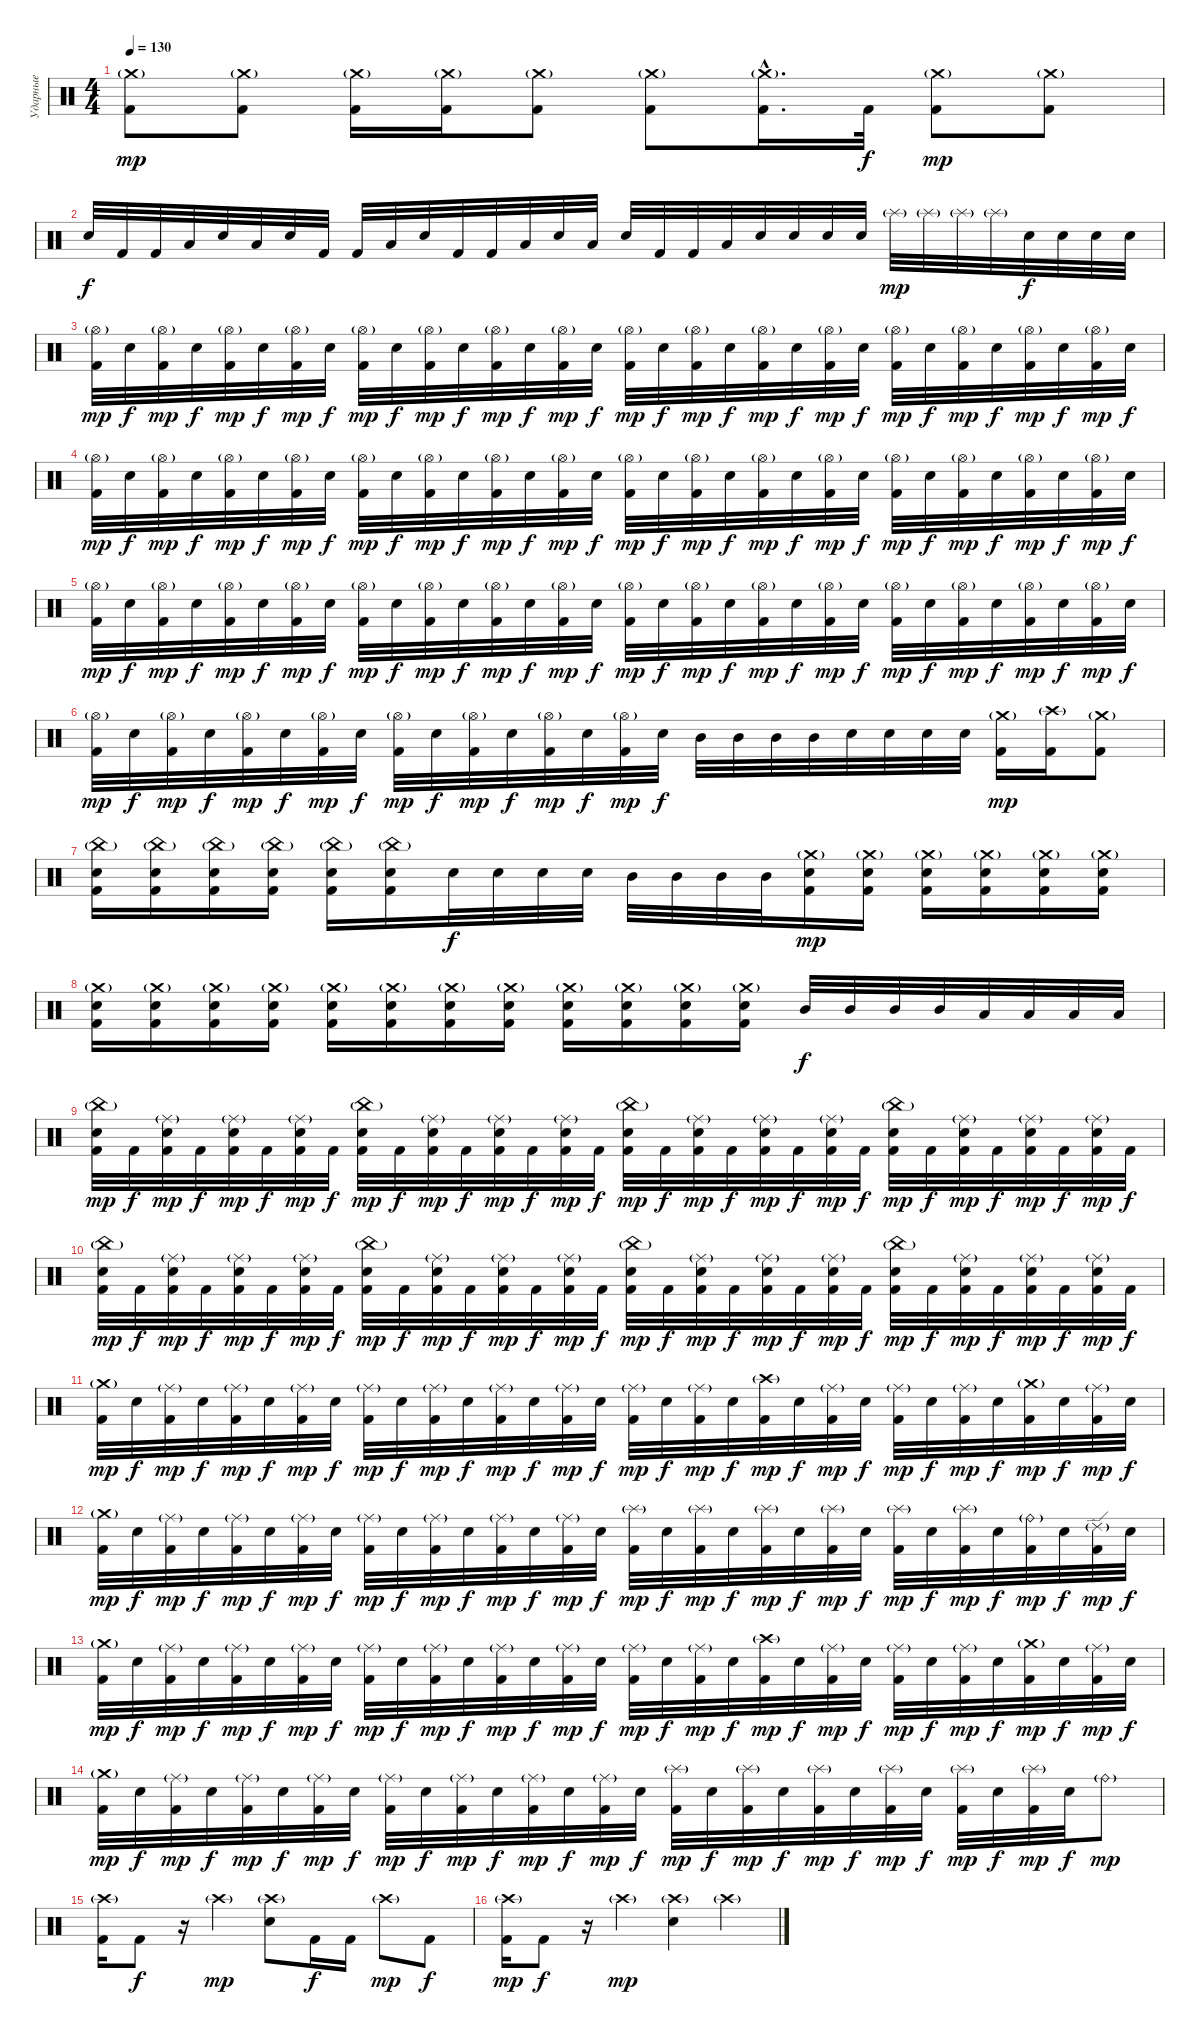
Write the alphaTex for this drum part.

\track ("Ударные" "Ударные") {instrument percussion}
\staff {score}
\articulation defaults
\ts (4 4)
\tempo 130
\clef neutral
\ks c
("Crash medium (hit)"{g} "Kick (hit) 2").8{dy mp} ("Crash medium (hit)"{g} "Kick (hit) 2").8 ("Crash medium (hit)"{g} "Kick (hit) 2").16 ("Crash medium (hit)"{g} "Kick (hit) 2").16 ("Crash medium (hit)"{g} "Kick (hit) 2").8 ("Crash medium (hit)"{g} "Kick (hit) 2").8 ("Crash medium (hit)"{g hac} "Kick (hit) 2"{hac}).16{d} "Kick (hit) 2".32{dy f} ("Crash medium (hit)"{g} "Kick (hit) 2").8{dy mp} ("Crash medium (hit)"{g} "Kick (hit) 2").8 |
"Electric Snare (hit)".32{dy f} "Kick (hit) 2".32 "Kick (hit) 2".32 "Low Tom (hit)".32 "Electric Snare (hit)".32 "Low Tom (hit)".32 "Electric Snare (hit)".32 "Kick (hit) 2".32 "Kick (hit) 2".32 "Low Tom (hit)".32 "Electric Snare (hit)".32 "Kick (hit) 2".32 "Kick (hit) 2".32 "Low Tom (hit)".32 "Electric Snare (hit)".32 "Low Tom (hit)".32 "Electric Snare (hit)".32 "Kick (hit) 2".32 "Kick (hit) 2".32 "Low Tom (hit)".32 "Electric Snare (hit)".32 "Electric Snare (hit)".32 "Electric Snare (hit)".32 "Electric Snare (hit)".32 "Splash (hit)"{g}.32{dy mp} "Splash (hit)"{g}.32 "Splash (hit)"{g}.32 "Splash (hit)"{g}.32 "Electric Snare (hit)".32{dy f} "Electric Snare (hit)".32 "Electric Snare (hit)".32 "Electric Snare (hit)".32 |
("Hi-Hat (open)"{g} "Kick (hit) 2").32{dy mp} "Electric Snare (hit)".32{dy f} ("Hi-Hat (open)"{g} "Kick (hit) 2").32{dy mp} "Electric Snare (hit)".32{dy f} ("Hi-Hat (open)"{g} "Kick (hit) 2").32{dy mp} "Electric Snare (hit)".32{dy f} ("Hi-Hat (open)"{g} "Kick (hit) 2").32{dy mp} "Electric Snare (hit)".32{dy f} ("Hi-Hat (open)"{g} "Kick (hit) 2").32{dy mp} "Electric Snare (hit)".32{dy f} ("Hi-Hat (open)"{g} "Kick (hit) 2").32{dy mp} "Electric Snare (hit)".32{dy f} ("Hi-Hat (open)"{g} "Kick (hit) 2").32{dy mp} "Electric Snare (hit)".32{dy f} ("Hi-Hat (open)"{g} "Kick (hit) 2").32{dy mp} "Electric Snare (hit)".32{dy f} ("Hi-Hat (open)"{g} "Kick (hit) 2").32{dy mp} "Electric Snare (hit)".32{dy f} ("Hi-Hat (open)"{g} "Kick (hit) 2").32{dy mp} "Electric Snare (hit)".32{dy f} ("Hi-Hat (open)"{g} "Kick (hit) 2").32{dy mp} "Electric Snare (hit)".32{dy f} ("Hi-Hat (open)"{g} "Kick (hit) 2").32{dy mp} "Electric Snare (hit)".32{dy f} ("Hi-Hat (open)"{g} "Kick (hit) 2").32{dy mp} "Electric Snare (hit)".32{dy f} ("Hi-Hat (open)"{g} "Kick (hit) 2").32{dy mp} "Electric Snare (hit)".32{dy f} ("Hi-Hat (open)"{g} "Kick (hit) 2").32{dy mp} "Electric Snare (hit)".32{dy f} ("Hi-Hat (open)"{g} "Kick (hit) 2").32{dy mp} "Electric Snare (hit)".32{dy f} |
("Hi-Hat (open)"{g} "Kick (hit) 2").32{dy mp} "Electric Snare (hit)".32{dy f} ("Hi-Hat (open)"{g} "Kick (hit) 2").32{dy mp} "Electric Snare (hit)".32{dy f} ("Hi-Hat (open)"{g} "Kick (hit) 2").32{dy mp} "Electric Snare (hit)".32{dy f} ("Hi-Hat (open)"{g} "Kick (hit) 2").32{dy mp} "Electric Snare (hit)".32{dy f} ("Hi-Hat (open)"{g} "Kick (hit) 2").32{dy mp} "Electric Snare (hit)".32{dy f} ("Hi-Hat (open)"{g} "Kick (hit) 2").32{dy mp} "Electric Snare (hit)".32{dy f} ("Hi-Hat (open)"{g} "Kick (hit) 2").32{dy mp} "Electric Snare (hit)".32{dy f} ("Hi-Hat (open)"{g} "Kick (hit) 2").32{dy mp} "Electric Snare (hit)".32{dy f} ("Hi-Hat (open)"{g} "Kick (hit) 2").32{dy mp} "Electric Snare (hit)".32{dy f} ("Hi-Hat (open)"{g} "Kick (hit) 2").32{dy mp} "Electric Snare (hit)".32{dy f} ("Hi-Hat (open)"{g} "Kick (hit) 2").32{dy mp} "Electric Snare (hit)".32{dy f} ("Hi-Hat (open)"{g} "Kick (hit) 2").32{dy mp} "Electric Snare (hit)".32{dy f} ("Hi-Hat (open)"{g} "Kick (hit) 2").32{dy mp} "Electric Snare (hit)".32{dy f} ("Hi-Hat (open)"{g} "Kick (hit) 2").32{dy mp} "Electric Snare (hit)".32{dy f} ("Hi-Hat (open)"{g} "Kick (hit) 2").32{dy mp} "Electric Snare (hit)".32{dy f} ("Hi-Hat (open)"{g} "Kick (hit) 2").32{dy mp} "Electric Snare (hit)".32{dy f} |
("Hi-Hat (open)"{g} "Kick (hit) 2").32{dy mp} "Electric Snare (hit)".32{dy f} ("Hi-Hat (open)"{g} "Kick (hit) 2").32{dy mp} "Electric Snare (hit)".32{dy f} ("Hi-Hat (open)"{g} "Kick (hit) 2").32{dy mp} "Electric Snare (hit)".32{dy f} ("Hi-Hat (open)"{g} "Kick (hit) 2").32{dy mp} "Electric Snare (hit)".32{dy f} ("Hi-Hat (open)"{g} "Kick (hit) 2").32{dy mp} "Electric Snare (hit)".32{dy f} ("Hi-Hat (open)"{g} "Kick (hit) 2").32{dy mp} "Electric Snare (hit)".32{dy f} ("Hi-Hat (open)"{g} "Kick (hit) 2").32{dy mp} "Electric Snare (hit)".32{dy f} ("Hi-Hat (open)"{g} "Kick (hit) 2").32{dy mp} "Electric Snare (hit)".32{dy f} ("Hi-Hat (open)"{g} "Kick (hit) 2").32{dy mp} "Electric Snare (hit)".32{dy f} ("Hi-Hat (open)"{g} "Kick (hit) 2").32{dy mp} "Electric Snare (hit)".32{dy f} ("Hi-Hat (open)"{g} "Kick (hit) 2").32{dy mp} "Electric Snare (hit)".32{dy f} ("Hi-Hat (open)"{g} "Kick (hit) 2").32{dy mp} "Electric Snare (hit)".32{dy f} ("Hi-Hat (open)"{g} "Kick (hit) 2").32{dy mp} "Electric Snare (hit)".32{dy f} ("Hi-Hat (open)"{g} "Kick (hit) 2").32{dy mp} "Electric Snare (hit)".32{dy f} ("Hi-Hat (open)"{g} "Kick (hit) 2").32{dy mp} "Electric Snare (hit)".32{dy f} ("Hi-Hat (open)"{g} "Kick (hit) 2").32{dy mp} "Electric Snare (hit)".32{dy f} |
("Hi-Hat (open)"{g} "Kick (hit) 2").32{dy mp} "Electric Snare (hit)".32{dy f} ("Hi-Hat (open)"{g} "Kick (hit) 2").32{dy mp} "Electric Snare (hit)".32{dy f} ("Hi-Hat (open)"{g} "Kick (hit) 2").32{dy mp} "Electric Snare (hit)".32{dy f} ("Hi-Hat (open)"{g} "Kick (hit) 2").32{dy mp} "Electric Snare (hit)".32{dy f} ("Hi-Hat (open)"{g} "Kick (hit) 2").32{dy mp} "Electric Snare (hit)".32{dy f} ("Hi-Hat (open)"{g} "Kick (hit) 2").32{dy mp} "Electric Snare (hit)".32{dy f} ("Hi-Hat (open)"{g} "Kick (hit) 2").32{dy mp} "Electric Snare (hit)".32{dy f} ("Hi-Hat (open)"{g} "Kick (hit) 2").32{dy mp} "Electric Snare (hit)".32{dy f} "Mid Tom (hit)".32 "Mid Tom (hit)".32 "Mid Tom (hit)".32 "Mid Tom (hit)".32 "Electric Snare (hit)".32 "Electric Snare (hit)".32 "Electric Snare (hit)".32 "Electric Snare (hit)".32 ("Crash medium (hit)"{g} "Kick (hit) 2").16{dy mp} ("Crash high (hit)"{g} "Kick (hit) 2").16 ("Crash medium (hit)"{g} "Kick (hit) 2").8 |
("China (hit)"{g} "Electric Snare (hit)" "Kick (hit) 2").16 ("China (hit)"{g} "Electric Snare (hit)" "Kick (hit) 2").16 ("China (hit)"{g} "Electric Snare (hit)" "Kick (hit) 2").16 ("China (hit)"{g} "Electric Snare (hit)" "Kick (hit) 2").16 ("China (hit)"{g} "Electric Snare (hit)" "Kick (hit) 2").16 ("China (hit)"{g} "Electric Snare (hit)" "Kick (hit) 2").16 "Electric Snare (hit)".32{dy f} "Electric Snare (hit)".32 "Electric Snare (hit)".32 "Electric Snare (hit)".32 "Mid Tom (hit)".32 "Mid Tom (hit)".32 "Mid Tom (hit)".32 "Mid Tom (hit)".32 ("Crash medium (hit)"{g} "Electric Snare (hit)" "Kick (hit) 2").16{dy mp} ("Crash medium (hit)"{g} "Electric Snare (hit)" "Kick (hit) 2").16 ("Crash medium (hit)"{g} "Electric Snare (hit)" "Kick (hit) 2").16 ("Crash medium (hit)"{g} "Electric Snare (hit)" "Kick (hit) 2").16 ("Crash medium (hit)"{g} "Electric Snare (hit)" "Kick (hit) 2").16 ("Crash medium (hit)"{g} "Electric Snare (hit)" "Kick (hit) 2").16 |
("Crash medium (hit)"{g} "Electric Snare (hit)" "Kick (hit) 2").16 ("Crash medium (hit)"{g} "Electric Snare (hit)" "Kick (hit) 2").16 ("Crash medium (hit)"{g} "Electric Snare (hit)" "Kick (hit) 2").16 ("Crash medium (hit)"{g} "Electric Snare (hit)" "Kick (hit) 2").16 ("Crash medium (hit)"{g} "Electric Snare (hit)" "Kick (hit) 2").16 ("Crash medium (hit)"{g} "Electric Snare (hit)" "Kick (hit) 2").16 ("Crash medium (hit)"{g} "Electric Snare (hit)" "Kick (hit) 2").16 ("Crash medium (hit)"{g} "Electric Snare (hit)" "Kick (hit) 2").16 ("Crash medium (hit)"{g} "Electric Snare (hit)" "Kick (hit) 2").16 ("Crash medium (hit)"{g} "Electric Snare (hit)" "Kick (hit) 2").16 ("Crash medium (hit)"{g} "Electric Snare (hit)" "Kick (hit) 2").16 ("Crash medium (hit)"{g} "Electric Snare (hit)" "Kick (hit) 2").16 "Mid Tom (hit)".32{dy f} "Mid Tom (hit)".32 "Mid Tom (hit)".32 "Mid Tom (hit)".32 "Low Tom (hit)".32 "Low Tom (hit)".32 "Low Tom (hit)".32 "Low Tom (hit)".32 |
("China (hit)"{g} "Electric Snare (hit)" "Kick (hit) 2").32{dy mp} "Kick (hit) 2".32{dy f} ("Ride (middle)"{g} "Electric Snare (hit)" "Kick (hit) 2").32{dy mp} "Kick (hit) 2".32{dy f} ("Ride (middle)"{g} "Electric Snare (hit)" "Kick (hit) 2").32{dy mp} "Kick (hit) 2".32{dy f} ("Ride (middle)"{g} "Electric Snare (hit)" "Kick (hit) 2").32{dy mp} "Kick (hit) 2".32{dy f} ("China (hit)"{g} "Electric Snare (hit)" "Kick (hit) 2").32{dy mp} "Kick (hit) 2".32{dy f} ("Ride (middle)"{g} "Electric Snare (hit)" "Kick (hit) 2").32{dy mp} "Kick (hit) 2".32{dy f} ("Ride (middle)"{g} "Electric Snare (hit)" "Kick (hit) 2").32{dy mp} "Kick (hit) 2".32{dy f} ("Ride (middle)"{g} "Electric Snare (hit)" "Kick (hit) 2").32{dy mp} "Kick (hit) 2".32{dy f} ("China (hit)"{g} "Electric Snare (hit)" "Kick (hit) 2").32{dy mp} "Kick (hit) 2".32{dy f} ("Ride (middle)"{g} "Electric Snare (hit)" "Kick (hit) 2").32{dy mp} "Kick (hit) 2".32{dy f} ("Ride (middle)"{g} "Electric Snare (hit)" "Kick (hit) 2").32{dy mp} "Kick (hit) 2".32{dy f} ("Ride (middle)"{g} "Electric Snare (hit)" "Kick (hit) 2").32{dy mp} "Kick (hit) 2".32{dy f} ("China (hit)"{g} "Electric Snare (hit)" "Kick (hit) 2").32{dy mp} "Kick (hit) 2".32{dy f} ("Ride (middle)"{g} "Electric Snare (hit)" "Kick (hit) 2").32{dy mp} "Kick (hit) 2".32{dy f} ("Ride (middle)"{g} "Electric Snare (hit)" "Kick (hit) 2").32{dy mp} "Kick (hit) 2".32{dy f} ("Ride (middle)"{g} "Electric Snare (hit)" "Kick (hit) 2").32{dy mp} "Kick (hit) 2".32{dy f} |
("China (hit)"{g} "Electric Snare (hit)" "Kick (hit) 2").32{dy mp} "Kick (hit) 2".32{dy f} ("Ride (middle)"{g} "Electric Snare (hit)" "Kick (hit) 2").32{dy mp} "Kick (hit) 2".32{dy f} ("Ride (middle)"{g} "Electric Snare (hit)" "Kick (hit) 2").32{dy mp} "Kick (hit) 2".32{dy f} ("Ride (middle)"{g} "Electric Snare (hit)" "Kick (hit) 2").32{dy mp} "Kick (hit) 2".32{dy f} ("China (hit)"{g} "Electric Snare (hit)" "Kick (hit) 2").32{dy mp} "Kick (hit) 2".32{dy f} ("Ride (middle)"{g} "Electric Snare (hit)" "Kick (hit) 2").32{dy mp} "Kick (hit) 2".32{dy f} ("Ride (middle)"{g} "Electric Snare (hit)" "Kick (hit) 2").32{dy mp} "Kick (hit) 2".32{dy f} ("Ride (middle)"{g} "Electric Snare (hit)" "Kick (hit) 2").32{dy mp} "Kick (hit) 2".32{dy f} ("China (hit)"{g} "Electric Snare (hit)" "Kick (hit) 2").32{dy mp} "Kick (hit) 2".32{dy f} ("Ride (middle)"{g} "Electric Snare (hit)" "Kick (hit) 2").32{dy mp} "Kick (hit) 2".32{dy f} ("Ride (middle)"{g} "Electric Snare (hit)" "Kick (hit) 2").32{dy mp} "Kick (hit) 2".32{dy f} ("Ride (middle)"{g} "Electric Snare (hit)" "Kick (hit) 2").32{dy mp} "Kick (hit) 2".32{dy f} ("China (hit)"{g} "Electric Snare (hit)" "Kick (hit) 2").32{dy mp} "Kick (hit) 2".32{dy f} ("Ride (middle)"{g} "Electric Snare (hit)" "Kick (hit) 2").32{dy mp} "Kick (hit) 2".32{dy f} ("Ride (middle)"{g} "Electric Snare (hit)" "Kick (hit) 2").32{dy mp} "Kick (hit) 2".32{dy f} ("Ride (middle)"{g} "Electric Snare (hit)" "Kick (hit) 2").32{dy mp} "Kick (hit) 2".32{dy f} |
("Crash medium (hit)"{g} "Kick (hit) 2").32{dy mp} "Electric Snare (hit)".32{dy f} ("Ride (middle)"{g} "Kick (hit) 2").32{dy mp} "Electric Snare (hit)".32{dy f} ("Ride (middle)"{g} "Kick (hit) 2").32{dy mp} "Electric Snare (hit)".32{dy f} ("Ride (middle)"{g} "Kick (hit) 2").32{dy mp} "Electric Snare (hit)".32{dy f} ("Ride (middle)"{g} "Kick (hit) 2").32{dy mp} "Electric Snare (hit)".32{dy f} ("Ride (middle)"{g} "Kick (hit) 2").32{dy mp} "Electric Snare (hit)".32{dy f} ("Ride (middle)"{g} "Kick (hit) 2").32{dy mp} "Electric Snare (hit)".32{dy f} ("Ride (middle)"{g} "Kick (hit) 2").32{dy mp} "Electric Snare (hit)".32{dy f} ("Ride (middle)"{g} "Kick (hit) 2").32{dy mp} "Electric Snare (hit)".32{dy f} ("Ride (middle)"{g} "Kick (hit) 2").32{dy mp} "Electric Snare (hit)".32{dy f} ("Crash high (hit)"{g} "Kick (hit) 2").32{dy mp} "Electric Snare (hit)".32{dy f} ("Ride (middle)"{g} "Kick (hit) 2").32{dy mp} "Electric Snare (hit)".32{dy f} ("Ride (middle)"{g} "Kick (hit) 2").32{dy mp} "Electric Snare (hit)".32{dy f} ("Ride (middle)"{g} "Kick (hit) 2").32{dy mp} "Electric Snare (hit)".32{dy f} ("Crash medium (hit)"{g} "Kick (hit) 2").32{dy mp} "Electric Snare (hit)".32{dy f} ("Ride (middle)"{g} "Kick (hit) 2").32{dy mp} "Electric Snare (hit)".32{dy f} |
("Crash medium (hit)"{g} "Kick (hit) 2").32{dy mp} "Electric Snare (hit)".32{dy f} ("Ride (middle)"{g} "Kick (hit) 2").32{dy mp} "Electric Snare (hit)".32{dy f} ("Ride (middle)"{g} "Kick (hit) 2").32{dy mp} "Electric Snare (hit)".32{dy f} ("Ride (middle)"{g} "Kick (hit) 2").32{dy mp} "Electric Snare (hit)".32{dy f} ("Ride (middle)"{g} "Kick (hit) 2").32{dy mp} "Electric Snare (hit)".32{dy f} ("Ride (middle)"{g} "Kick (hit) 2").32{dy mp} "Electric Snare (hit)".32{dy f} ("Ride (middle)"{g} "Kick (hit) 2").32{dy mp} "Electric Snare (hit)".32{dy f} ("Ride (middle)"{g} "Kick (hit) 2").32{dy mp} "Electric Snare (hit)".32{dy f} ("Splash (hit)"{g} "Kick (hit) 2").32{dy mp} "Electric Snare (hit)".32{dy f} ("Splash (hit)"{g} "Kick (hit) 2").32{dy mp} "Electric Snare (hit)".32{dy f} ("Splash (hit)"{g} "Kick (hit) 2").32{dy mp} "Electric Snare (hit)".32{dy f} ("Splash (hit)"{g} "Kick (hit) 2").32{dy mp} "Electric Snare (hit)".32{dy f} ("Splash (hit)"{g} "Kick (hit) 2").32{dy mp} "Electric Snare (hit)".32{dy f} ("Splash (hit)"{g} "Kick (hit) 2").32{dy mp} "Electric Snare (hit)".32{dy f} ("Ride (bell)"{g} "Kick (hit) 2").32{dy mp} "Electric Snare (hit)".32{dy f} ("Ride (edge) 2"{g} "Kick (hit) 2").32{dy mp} "Electric Snare (hit)".32{dy f} |
("Crash medium (hit)"{g} "Kick (hit) 2").32{dy mp} "Electric Snare (hit)".32{dy f} ("Ride (middle)"{g} "Kick (hit) 2").32{dy mp} "Electric Snare (hit)".32{dy f} ("Ride (middle)"{g} "Kick (hit) 2").32{dy mp} "Electric Snare (hit)".32{dy f} ("Ride (middle)"{g} "Kick (hit) 2").32{dy mp} "Electric Snare (hit)".32{dy f} ("Ride (middle)"{g} "Kick (hit) 2").32{dy mp} "Electric Snare (hit)".32{dy f} ("Ride (middle)"{g} "Kick (hit) 2").32{dy mp} "Electric Snare (hit)".32{dy f} ("Ride (middle)"{g} "Kick (hit) 2").32{dy mp} "Electric Snare (hit)".32{dy f} ("Ride (middle)"{g} "Kick (hit) 2").32{dy mp} "Electric Snare (hit)".32{dy f} ("Ride (middle)"{g} "Kick (hit) 2").32{dy mp} "Electric Snare (hit)".32{dy f} ("Ride (middle)"{g} "Kick (hit) 2").32{dy mp} "Electric Snare (hit)".32{dy f} ("Crash high (hit)"{g} "Kick (hit) 2").32{dy mp} "Electric Snare (hit)".32{dy f} ("Ride (middle)"{g} "Kick (hit) 2").32{dy mp} "Electric Snare (hit)".32{dy f} ("Ride (middle)"{g} "Kick (hit) 2").32{dy mp} "Electric Snare (hit)".32{dy f} ("Ride (middle)"{g} "Kick (hit) 2").32{dy mp} "Electric Snare (hit)".32{dy f} ("Crash medium (hit)"{g} "Kick (hit) 2").32{dy mp} "Electric Snare (hit)".32{dy f} ("Ride (middle)"{g} "Kick (hit) 2").32{dy mp} "Electric Snare (hit)".32{dy f} |
("Crash medium (hit)"{g} "Kick (hit) 2").32{dy mp} "Electric Snare (hit)".32{dy f} ("Ride (middle)"{g} "Kick (hit) 2").32{dy mp} "Electric Snare (hit)".32{dy f} ("Ride (middle)"{g} "Kick (hit) 2").32{dy mp} "Electric Snare (hit)".32{dy f} ("Ride (middle)"{g} "Kick (hit) 2").32{dy mp} "Electric Snare (hit)".32{dy f} ("Ride (middle)"{g} "Kick (hit) 2").32{dy mp} "Electric Snare (hit)".32{dy f} ("Ride (middle)"{g} "Kick (hit) 2").32{dy mp} "Electric Snare (hit)".32{dy f} ("Ride (middle)"{g} "Kick (hit) 2").32{dy mp} "Electric Snare (hit)".32{dy f} ("Ride (middle)"{g} "Kick (hit) 2").32{dy mp} "Electric Snare (hit)".32{dy f} ("Splash (hit)"{g} "Kick (hit) 2").32{dy mp} "Electric Snare (hit)".32{dy f} ("Splash (hit)"{g} "Kick (hit) 2").32{dy mp} "Electric Snare (hit)".32{dy f} ("Splash (hit)"{g} "Kick (hit) 2").32{dy mp} "Electric Snare (hit)".32{dy f} ("Splash (hit)"{g} "Kick (hit) 2").32{dy mp} "Electric Snare (hit)".32{dy f} ("Splash (hit)"{g} "Kick (hit) 2").32{dy mp} "Electric Snare (hit)".32{dy f} ("Splash (hit)"{g} "Kick (hit) 2").32{dy mp} "Electric Snare (hit)".32{dy f} "Ride (bell)"{g}.8{dy mp} |
("Crash high (hit)"{g} "Kick (hit) 2").16 "Kick (hit) 2".8{dy f} r.16 "Crash high (hit)"{g}.4{dy mp} ("Crash high (hit)"{g} "Electric Snare (hit)").8 "Kick (hit) 2".16{dy f} "Kick (hit) 2".16 "Crash high (hit)"{g}.8{dy mp} "Kick (hit) 2".8{dy f} |
("Crash high (hit)"{g} "Kick (hit) 2").16{dy mp} "Kick (hit) 2".8{dy f} r.16 "Crash high (hit)"{g}.4{dy mp} ("Crash high (hit)"{g} "Electric Snare (hit)").4 "Crash high (hit)"{g}.4
